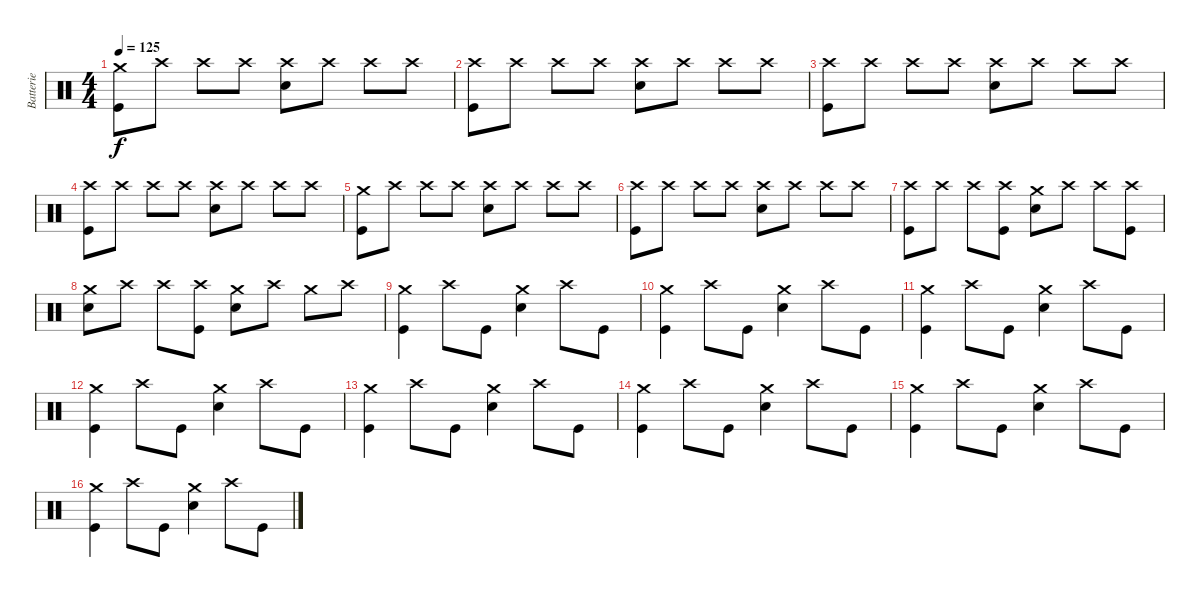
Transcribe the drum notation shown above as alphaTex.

\track ("Batterie" "Batterie") {instrument percussion}
\staff {score}
\articulation defaults
\ts (4 4)
\tempo 125
\clef neutral
\ks c
("Crash medium (hit)" "Kick (hit)").8{dy f} "Crash high (hit)".8 "Crash high (hit)".8 "Crash high (hit)".8 ("Crash high (hit)" "Electric Snare (hit)").8 "Crash high (hit)".8 "Crash high (hit)".8 "Crash high (hit)".8 |
("Crash high (hit)" "Kick (hit)").8 "Crash high (hit)".8 "Crash high (hit)".8 "Crash high (hit)".8 ("Crash high (hit)" "Electric Snare (hit)").8 "Crash high (hit)".8 "Crash high (hit)".8 "Crash high (hit)".8 |
("Crash high (hit)" "Kick (hit)").8 "Crash high (hit)".8 "Crash high (hit)".8 "Crash high (hit)".8 ("Crash high (hit)" "Electric Snare (hit)").8 "Crash high (hit)".8 "Crash high (hit)".8 "Crash high (hit)".8 |
("Crash high (hit)" "Kick (hit)").8 "Crash high (hit)".8 "Crash high (hit)".8 "Crash high (hit)".8 ("Crash high (hit)" "Electric Snare (hit)").8 "Crash high (hit)".8 "Crash high (hit)".8 "Crash high (hit)".8 |
("Crash medium (hit)" "Kick (hit)").8 "Crash high (hit)".8 "Crash high (hit)".8 "Crash high (hit)".8 ("Crash high (hit)" "Electric Snare (hit)").8 "Crash high (hit)".8 "Crash high (hit)".8 "Crash high (hit)".8 |
("Crash high (hit)" "Kick (hit)").8 "Crash high (hit)".8 "Crash high (hit)".8 "Crash high (hit)".8 ("Crash high (hit)" "Electric Snare (hit)").8 "Crash high (hit)".8 "Crash high (hit)".8 "Crash high (hit)".8 |
("Crash high (hit)" "Kick (hit)").8 "Crash high (hit)".8 "Crash high (hit)".8 ("Crash high (hit)" "Kick (hit)").8 ("Crash medium (hit)" "Electric Snare (hit)").8 "Crash high (hit)".8 "Crash high (hit)".8 ("Crash high (hit)" "Kick (hit)").8 |
("Crash medium (hit)" "Electric Snare (hit)").8 "Crash high (hit)".8 "Crash high (hit)".8 ("Crash high (hit)" "Kick (hit)").8 ("Crash medium (hit)" "Electric Snare (hit)").8 "Crash high (hit)".8 "Crash medium (hit)".8 "Crash high (hit)".8 |
("Crash medium (hit)" "Kick (hit)").4 "Crash high (hit)".8 "Kick (hit)".8 ("Crash medium (hit)" "Electric Snare (hit)").4 "Crash high (hit)".8 "Kick (hit)".8 |
("Crash medium (hit)" "Kick (hit)").4 "Crash high (hit)".8 "Kick (hit)".8 ("Crash medium (hit)" "Electric Snare (hit)").4 "Crash high (hit)".8 "Kick (hit)".8 |
("Crash medium (hit)" "Kick (hit)").4 "Crash high (hit)".8 "Kick (hit)".8 ("Crash medium (hit)" "Electric Snare (hit)").4 "Crash high (hit)".8 "Kick (hit)".8 |
("Crash medium (hit)" "Kick (hit)").4 "Crash high (hit)".8 "Kick (hit)".8 ("Crash medium (hit)" "Electric Snare (hit)").4 "Crash high (hit)".8 "Kick (hit)".8 |
("Crash medium (hit)" "Kick (hit)").4 "Crash high (hit)".8 "Kick (hit)".8 ("Crash medium (hit)" "Electric Snare (hit)").4 "Crash high (hit)".8 "Kick (hit)".8 |
("Crash medium (hit)" "Kick (hit)").4 "Crash high (hit)".8 "Kick (hit)".8 ("Crash medium (hit)" "Electric Snare (hit)").4 "Crash high (hit)".8 "Kick (hit)".8 |
("Crash medium (hit)" "Kick (hit)").4 "Crash high (hit)".8 "Kick (hit)".8 ("Crash medium (hit)" "Electric Snare (hit)").4 "Crash high (hit)".8 "Kick (hit)".8 |
("Crash medium (hit)" "Kick (hit)").4 "Crash high (hit)".8 "Kick (hit)".8 ("Crash medium (hit)" "Electric Snare (hit)").4 "Crash high (hit)".8 "Kick (hit)".8
